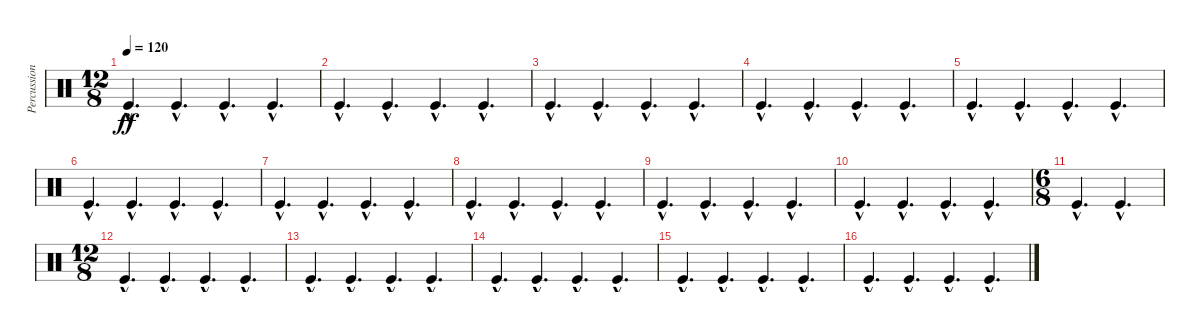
\track ("Percussions" "Percussion") {instrument percussion}
\staff {score}
\articulation defaults
\ts (12 8)
\tempo 120
\clef neutral
\ks c "Kick (hit)"{hac}.4{d dy ff} "Kick (hit)"{hac}.4{d} "Kick (hit)"{hac}.4{d} "Kick (hit)"{hac}.4{d}
|
"Kick (hit)"{hac}.4{d} "Kick (hit)"{hac}.4{d} "Kick (hit)"{hac}.4{d} "Kick (hit)"{hac}.4{d} |
"Kick (hit)"{hac}.4{d} "Kick (hit)"{hac}.4{d} "Kick (hit)"{hac}.4{d} "Kick (hit)"{hac}.4{d} |
"Kick (hit)"{hac}.4{d} "Kick (hit)"{hac}.4{d} "Kick (hit)"{hac}.4{d} "Kick (hit)"{hac}.4{d} |
"Kick (hit)"{hac}.4{d} "Kick (hit)"{hac}.4{d} "Kick (hit)"{hac}.4{d} "Kick (hit)"{hac}.4{d} |
"Kick (hit)"{hac}.4{d} "Kick (hit)"{hac}.4{d} "Kick (hit)"{hac}.4{d} "Kick (hit)"{hac}.4{d} |
"Kick (hit)"{hac}.4{d} "Kick (hit)"{hac}.4{d} "Kick (hit)"{hac}.4{d} "Kick (hit)"{hac}.4{d} |
"Kick (hit)"{hac}.4{d} "Kick (hit)"{hac}.4{d} "Kick (hit)"{hac}.4{d} "Kick (hit)"{hac}.4{d} |
"Kick (hit)"{hac}.4{d} "Kick (hit)"{hac}.4{d} "Kick (hit)"{hac}.4{d} "Kick (hit)"{hac}.4{d} |
"Kick (hit)"{hac}.4{d} "Kick (hit)"{hac}.4{d} "Kick (hit)"{hac}.4{d} "Kick (hit)"{hac}.4{d} |
\ts (6 8)
"Kick (hit)"{hac}.4{d} "Kick (hit)"{hac}.4{d} |
\ts (12 8)
"Kick (hit)"{hac}.4{d} "Kick (hit)"{hac}.4{d} "Kick (hit)"{hac}.4{d} "Kick (hit)"{hac}.4{d} |
"Kick (hit)"{hac}.4{d} "Kick (hit)"{hac}.4{d} "Kick (hit)"{hac}.4{d} "Kick (hit)"{hac}.4{d} |
"Kick (hit)"{hac}.4{d} "Kick (hit)"{hac}.4{d} "Kick (hit)"{hac}.4{d} "Kick (hit)"{hac}.4{d} |
"Kick (hit)"{hac}.4{d} "Kick (hit)"{hac}.4{d} "Kick (hit)"{hac}.4{d} "Kick (hit)"{hac}.4{d} |
"Kick (hit)"{hac}.4{d} "Kick (hit)"{hac}.4{d} "Kick (hit)"{hac}.4{d} "Kick (hit)"{hac}.4{d}
